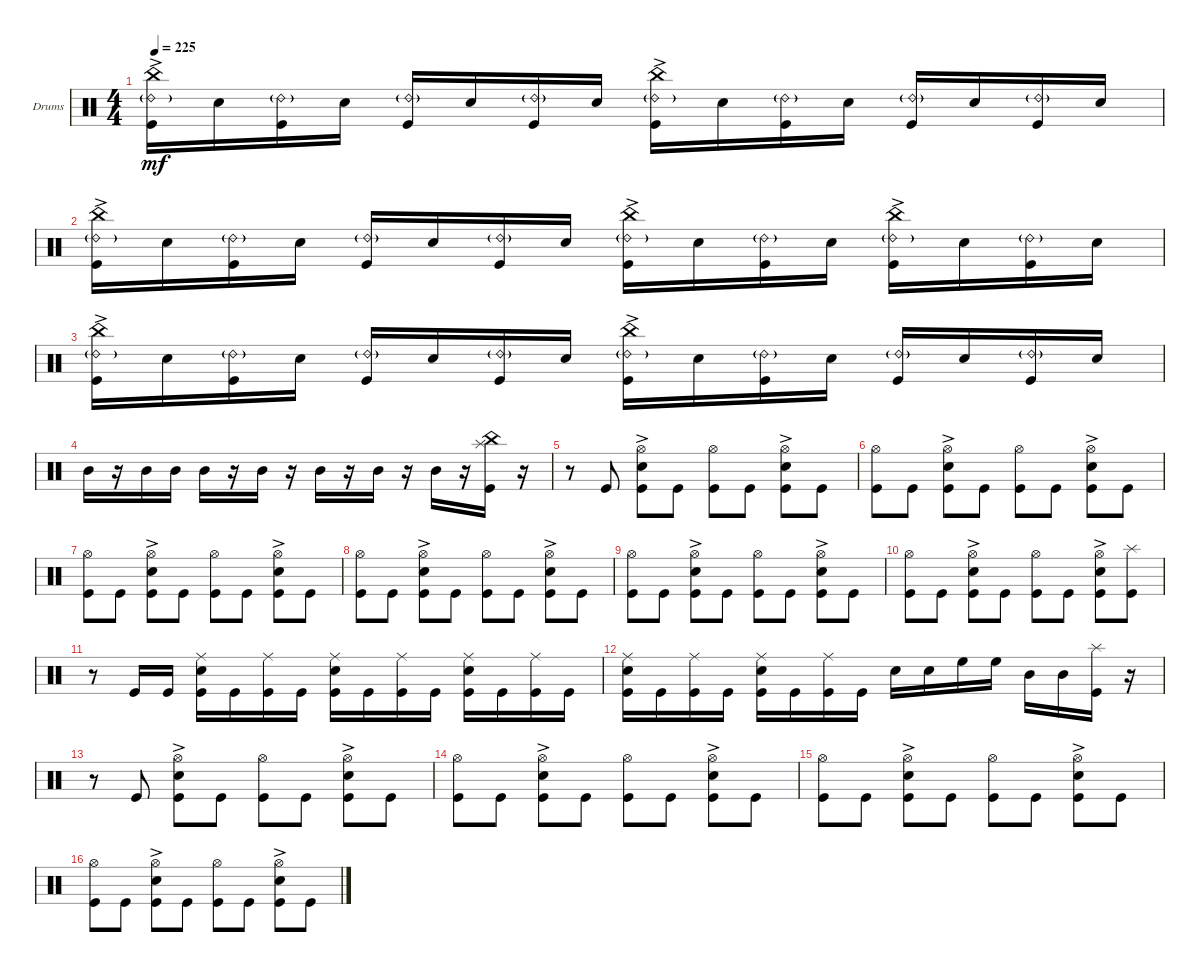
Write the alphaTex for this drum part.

\bracketExtendMode groupsimilarinstruments
\firstSystemTrackNameOrientation horizontal
\otherSystemsTrackNameOrientation horizontal
\track ("Drumkit" "Drums") {instrument percussion}
\staff {score}
\articulation defaults
\ts (4 4)
\tempo 225
\clef neutral
\ks c
("Kick (hit)" "Ride (bell) 2"{g} "China (hit)"{ac}).16{dy mf} "Snare (hit) 2".16 ("Kick (hit)" "Ride (bell) 2"{g}).16 "Snare (hit) 2".16 ("Kick (hit)" "Ride (bell) 2"{g}).16 "Snare (hit) 2".16 ("Kick (hit)" "Ride (bell) 2"{g}).16 "Snare (hit) 2".16 ("Kick (hit)" "Ride (bell) 2"{g} "China (hit)"{ac}).16 "Snare (hit) 2".16 ("Kick (hit)" "Ride (bell) 2"{g}).16 "Snare (hit) 2".16 ("Kick (hit)" "Ride (bell) 2"{g}).16 "Snare (hit) 2".16 ("Kick (hit)" "Ride (bell) 2"{g}).16 "Snare (hit) 2".16 |
("Kick (hit)" "Ride (bell) 2"{g} "China (hit)"{ac}).16 "Snare (hit) 2".16 ("Kick (hit)" "Ride (bell) 2"{g}).16 "Snare (hit) 2".16 ("Kick (hit)" "Ride (bell) 2"{g}).16 "Snare (hit) 2".16 ("Kick (hit)" "Ride (bell) 2"{g}).16 "Snare (hit) 2".16 ("Kick (hit)" "Ride (bell) 2"{g} "China (hit)"{ac}).16 "Snare (hit) 2".16 ("Kick (hit)" "Ride (bell) 2"{g}).16 "Snare (hit) 2".16 ("Kick (hit)" "Ride (bell) 2"{g} "China (hit)"{ac}).16 "Snare (hit) 2".16 ("Kick (hit)" "Ride (bell) 2"{g}).16 "Snare (hit) 2".16 |
("Kick (hit)" "Ride (bell) 2"{g} "China (hit)"{ac}).16 "Snare (hit) 2".16 ("Kick (hit)" "Ride (bell) 2"{g}).16 "Snare (hit) 2".16 ("Kick (hit)" "Ride (bell) 2"{g}).16 "Snare (hit) 2".16 ("Kick (hit)" "Ride (bell) 2"{g}).16 "Snare (hit) 2".16 ("Kick (hit)" "Ride (bell) 2"{g} "China (hit)"{ac}).16 "Snare (hit) 2".16 ("Kick (hit)" "Ride (bell) 2"{g}).16 "Snare (hit) 2".16 ("Kick (hit)" "Ride (bell) 2"{g}).16 "Snare (hit) 2".16 ("Kick (hit)" "Ride (bell) 2"{g}).16 "Snare (hit) 2".16 |
"Mid Tom (hit)".16 r.16 "Mid Tom (hit)".16 "Mid Tom (hit)".16 "Mid Tom (hit)".16 r.16 "Mid Tom (hit)".16 r.16 "Mid Tom (hit)".16 r.16 "Mid Tom (hit)".16 r.16 "Mid Tom (hit)".16 r.16 ("Kick (hit)" "China (hit)" "Splash (hit)").16 r.16 |
r.8 "Kick (hit)".8 ("Snare (hit) 2"{ac} "Kick (hit)" "Hi-Hat (open)").8 "Kick (hit)".8 ("Kick (hit)" "Hi-Hat (open)").8 "Kick (hit)".8 ("Snare (hit) 2"{ac} "Kick (hit)" "Hi-Hat (open)").8 "Kick (hit)".8 |
("Kick (hit)" "Hi-Hat (open)").8 "Kick (hit)".8 ("Snare (hit) 2"{ac} "Kick (hit)" "Hi-Hat (open)").8 "Kick (hit)".8 ("Kick (hit)" "Hi-Hat (open)").8 "Kick (hit)".8 ("Snare (hit) 2"{ac} "Kick (hit)" "Hi-Hat (open)").8 "Kick (hit)".8 |
("Kick (hit)" "Hi-Hat (open)").8 "Kick (hit)".8 ("Snare (hit) 2"{ac} "Kick (hit)" "Hi-Hat (open)").8 "Kick (hit)".8 ("Kick (hit)" "Hi-Hat (open)").8 "Kick (hit)".8 ("Snare (hit) 2"{ac} "Kick (hit)" "Hi-Hat (open)").8 "Kick (hit)".8 |
("Kick (hit)" "Hi-Hat (open)").8 "Kick (hit)".8 ("Snare (hit) 2"{ac} "Kick (hit)" "Hi-Hat (open)").8 "Kick (hit)".8 ("Kick (hit)" "Hi-Hat (open)").8 "Kick (hit)".8 ("Snare (hit) 2"{ac} "Kick (hit)" "Hi-Hat (open)").8 "Kick (hit)".8 |
("Kick (hit)" "Hi-Hat (open)").8 "Kick (hit)".8 ("Snare (hit) 2"{ac} "Kick (hit)" "Hi-Hat (open)").8 "Kick (hit)".8 ("Kick (hit)" "Hi-Hat (open)").8 "Kick (hit)".8 ("Snare (hit) 2"{ac} "Kick (hit)" "Hi-Hat (open)").8 "Kick (hit)".8 |
("Kick (hit)" "Hi-Hat (open)").8 "Kick (hit)".8 ("Snare (hit) 2"{ac} "Kick (hit)" "Hi-Hat (open)").8 "Kick (hit)".8 ("Kick (hit)" "Hi-Hat (open)").8 "Kick (hit)".8 ("Snare (hit) 2"{ac} "Kick (hit)" "Hi-Hat (open)").8 ("Kick (hit)" "Splash (hit)").8 |
r.8 "Kick (hit)".16 "Kick (hit)".16 ("Snare (hit) 2" "Kick (hit)" "Ride (middle)").16 "Kick (hit)".16 ("Kick (hit)" "Ride (middle)").16 "Kick (hit)".16 ("Snare (hit) 2" "Kick (hit)" "Ride (middle)").16 "Kick (hit)".16 ("Kick (hit)" "Ride (middle)").16 "Kick (hit)".16 ("Snare (hit) 2" "Kick (hit)" "Ride (middle)").16 "Kick (hit)".16 ("Kick (hit)" "Ride (middle)").16 "Kick (hit)".16 |
("Snare (hit) 2" "Kick (hit)" "Ride (middle)").16 "Kick (hit)".16 ("Kick (hit)" "Ride (middle)").16 "Kick (hit)".16 ("Snare (hit) 2" "Kick (hit)" "Ride (middle)").16 "Kick (hit)".16 ("Kick (hit)" "Ride (middle)").16 "Kick (hit)".16 "Snare (hit) 2".16 "Snare (hit) 2".16 "High Floor Tom (hit)".16 "High Floor Tom (hit)".16 "Mid Tom (hit)".16 "Mid Tom (hit)".16 ("Kick (hit)" "Splash (hit)").16 r.16 |
r.8 "Kick (hit)".8 ("Snare (hit) 2"{ac} "Kick (hit)" "Hi-Hat (open)").8 "Kick (hit)".8 ("Kick (hit)" "Hi-Hat (open)").8 "Kick (hit)".8 ("Snare (hit) 2"{ac} "Kick (hit)" "Hi-Hat (open)").8 "Kick (hit)".8 |
("Kick (hit)" "Hi-Hat (open)").8 "Kick (hit)".8 ("Snare (hit) 2"{ac} "Kick (hit)" "Hi-Hat (open)").8 "Kick (hit)".8 ("Kick (hit)" "Hi-Hat (open)").8 "Kick (hit)".8 ("Snare (hit) 2"{ac} "Kick (hit)" "Hi-Hat (open)").8 "Kick (hit)".8 |
("Kick (hit)" "Hi-Hat (open)").8 "Kick (hit)".8 ("Snare (hit) 2"{ac} "Kick (hit)" "Hi-Hat (open)").8 "Kick (hit)".8 ("Kick (hit)" "Hi-Hat (open)").8 "Kick (hit)".8 ("Snare (hit) 2"{ac} "Kick (hit)" "Hi-Hat (open)").8 "Kick (hit)".8 |
("Kick (hit)" "Hi-Hat (open)").8 "Kick (hit)".8 ("Snare (hit) 2"{ac} "Kick (hit)" "Hi-Hat (open)").8 "Kick (hit)".8 ("Kick (hit)" "Hi-Hat (open)").8 "Kick (hit)".8 ("Snare (hit) 2"{ac} "Kick (hit)" "Hi-Hat (open)").8 "Kick (hit)".8
